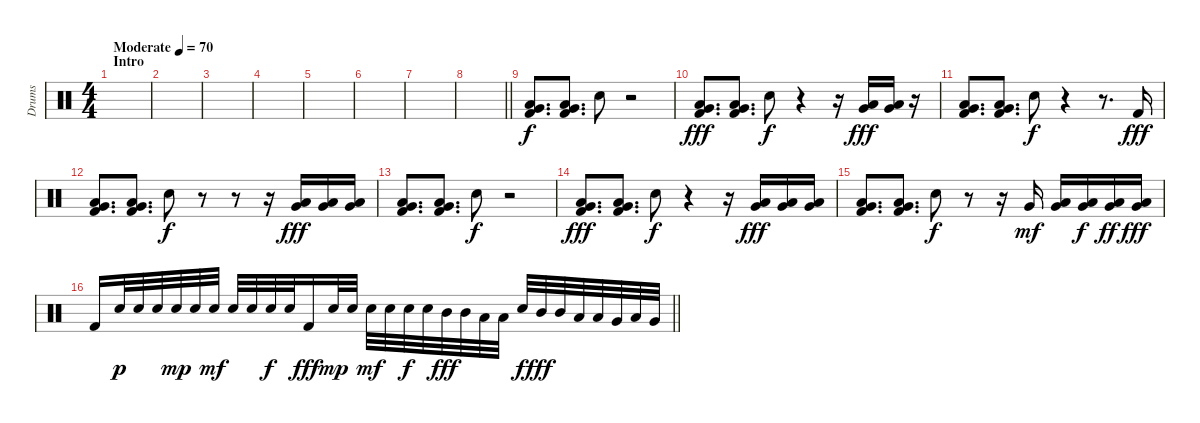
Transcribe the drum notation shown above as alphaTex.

\track ("Drums" "Drums") {instrument percussion}
\staff {score}
\articulation defaults
\ts (4 4)
\section ("" "Intro")
\tempo (70 "Moderate")
\clef neutral
\ks c
|
|
|
|
|
|
|
\barLineRight lightlight
|
("Low Tom (hit)" "Very Low Tom (hit)" "Kick (hit) 2").8{d} ("Low Tom (hit)" "Very Low Tom (hit)" "Kick (hit) 2").8{d} "Snare (hit) 2".8{dy f} r.2 |
("Low Tom (hit)" "Very Low Tom (hit)" "Kick (hit) 2").8{d dy fff} ("Low Tom (hit)" "Very Low Tom (hit)" "Kick (hit) 2").8{d} "Snare (hit) 2".8{dy f} r.4 r.16 ("Low Tom (hit)" "Very Low Tom (hit)").16{dy fff} ("Low Tom (hit)" "Very Low Tom (hit)").16 r.16 |
("Low Tom (hit)" "Very Low Tom (hit)" "Kick (hit) 2").8{d} ("Low Tom (hit)" "Very Low Tom (hit)" "Kick (hit) 2").8{d} "Snare (hit) 2".8{dy f} r.4 r.8{d} "Kick (hit) 2".16{dy fff} |
("Low Tom (hit)" "Very Low Tom (hit)" "Kick (hit) 2").8{d} ("Low Tom (hit)" "Very Low Tom (hit)" "Kick (hit) 2").8{d} "Snare (hit) 2".8{dy f} r.8 r.8 r.16 ("Low Tom (hit)" "Very Low Tom (hit)").16{dy fff} ("Low Tom (hit)" "Very Low Tom (hit)").16 ("Low Tom (hit)" "Very Low Tom (hit)").16 |
("Low Tom (hit)" "Very Low Tom (hit)" "Kick (hit) 2").8{d} ("Low Tom (hit)" "Very Low Tom (hit)" "Kick (hit) 2").8{d} "Snare (hit) 2".8{dy f} r.2 |
("Low Tom (hit)" "Very Low Tom (hit)" "Kick (hit) 2").8{d dy fff} ("Low Tom (hit)" "Very Low Tom (hit)" "Kick (hit) 2").8{d} "Snare (hit) 2".8{dy f} r.4 r.16 ("Low Tom (hit)" "Very Low Tom (hit)").16{dy fff} ("Low Tom (hit)" "Very Low Tom (hit)").16 ("Low Tom (hit)" "Very Low Tom (hit)").16 |
("Low Tom (hit)" "Very Low Tom (hit)" "Kick (hit) 2").8{d} ("Low Tom (hit)" "Very Low Tom (hit)" "Kick (hit) 2").8{d} "Snare (hit) 2".8{dy f} r.8 r.16 "Very Low Tom (hit)".16{dy mf} ("Low Tom (hit)" "Very Low Tom (hit)").16 ("Low Tom (hit)" "Very Low Tom (hit)").16{dy f} ("Low Tom (hit)" "Very Low Tom (hit)").16{dy ff} ("Low Tom (hit)" "Very Low Tom (hit)").16{dy fff} |
\barLineRight lightlight "Kick (hit) 2".16 "Snare (hit) 2".32{dy p} "Snare (hit) 2".32 "Snare (hit) 2".32 "Snare (hit) 2".32{dy mp} "Snare (hit) 2".32 "Snare (hit) 2".32{dy mf} "Snare (hit) 2".32 "Snare (hit) 2".32 "Snare (hit) 2".32{dy f} "Snare (hit) 2".32 "Kick (hit) 2".16{dy fff} "Snare (hit) 2".32{dy mp} "Snare (hit) 2".32 "Snare (hit) 2".32{dy mf} "Snare (hit) 2".32 "Snare (hit) 2".32{dy f} "Snare (hit) 2".32 "Mid Tom (hit)".32{dy fff} "Mid Tom (hit)".32 "Low Tom (hit)".32 "Low Tom (hit)".32 "Snare (hit) 2".32{dy f} "Mid Tom (hit)".32{dy fff} "Mid Tom (hit)".32 "Low Tom (hit)".32 "Low Tom (hit)".32 "Very Low Tom (hit)".32 "Low Tom (hit)".32 "Very Low Tom (hit)".32
